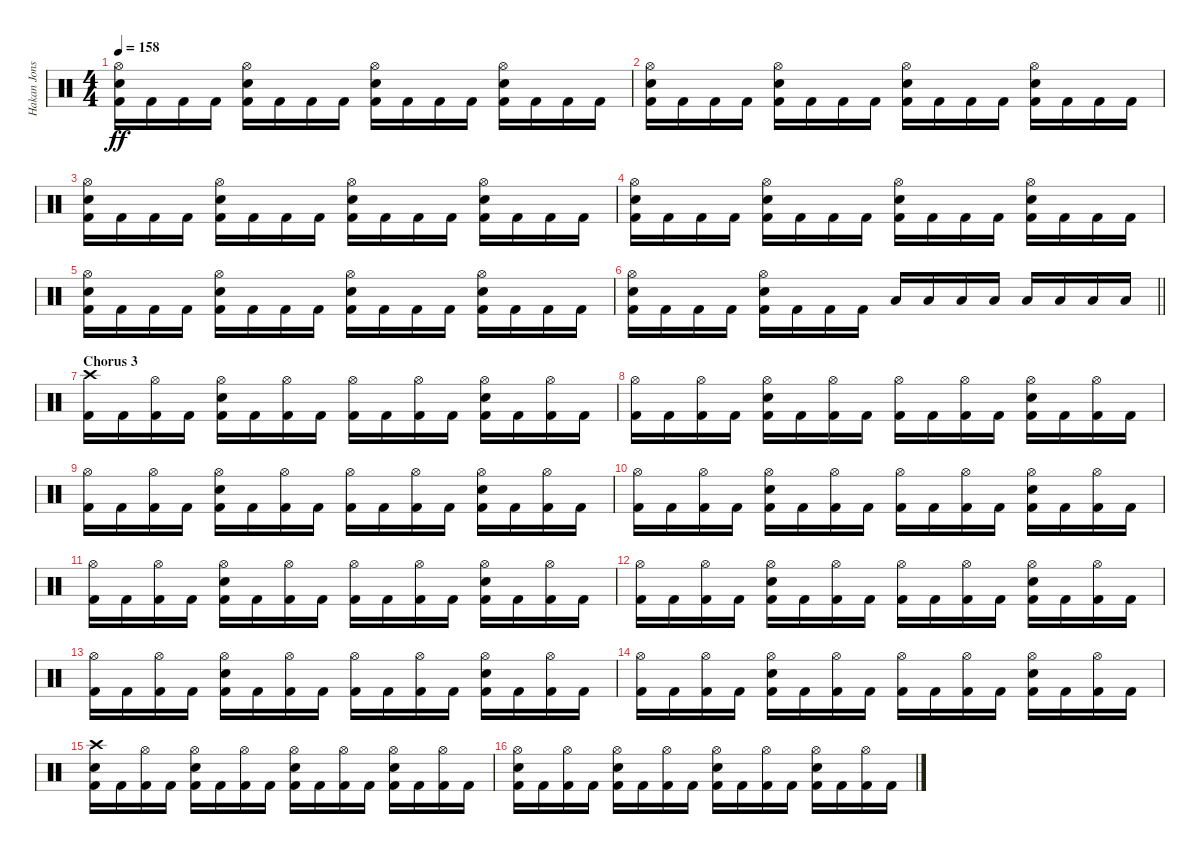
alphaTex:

\track ("Hakan Jonsson" "Hakan Jons") {instrument percussion}
\staff {score}
\articulation defaults
\ts (4 4)
\tempo 158
\clef neutral
\ks c
("Hi-Hat (open)" "Electric Snare (hit)" "Kick (hit) 2").16{dy ff} "Kick (hit) 2".16 "Kick (hit) 2".16 "Kick (hit) 2".16 ("Hi-Hat (open)" "Electric Snare (hit)" "Kick (hit) 2").16 "Kick (hit) 2".16 "Kick (hit) 2".16 "Kick (hit) 2".16 ("Hi-Hat (open)" "Electric Snare (hit)" "Kick (hit) 2").16 "Kick (hit) 2".16 "Kick (hit) 2".16 "Kick (hit) 2".16 ("Hi-Hat (open)" "Electric Snare (hit)" "Kick (hit) 2").16 "Kick (hit) 2".16 "Kick (hit) 2".16 "Kick (hit) 2".16 |
("Hi-Hat (open)" "Electric Snare (hit)" "Kick (hit) 2").16 "Kick (hit) 2".16 "Kick (hit) 2".16 "Kick (hit) 2".16 ("Hi-Hat (open)" "Electric Snare (hit)" "Kick (hit) 2").16 "Kick (hit) 2".16 "Kick (hit) 2".16 "Kick (hit) 2".16 ("Hi-Hat (open)" "Electric Snare (hit)" "Kick (hit) 2").16 "Kick (hit) 2".16 "Kick (hit) 2".16 "Kick (hit) 2".16 ("Hi-Hat (open)" "Electric Snare (hit)" "Kick (hit) 2").16 "Kick (hit) 2".16 "Kick (hit) 2".16 "Kick (hit) 2".16 |
("Hi-Hat (open)" "Electric Snare (hit)" "Kick (hit) 2").16 "Kick (hit) 2".16 "Kick (hit) 2".16 "Kick (hit) 2".16 ("Hi-Hat (open)" "Electric Snare (hit)" "Kick (hit) 2").16 "Kick (hit) 2".16 "Kick (hit) 2".16 "Kick (hit) 2".16 ("Hi-Hat (open)" "Electric Snare (hit)" "Kick (hit) 2").16 "Kick (hit) 2".16 "Kick (hit) 2".16 "Kick (hit) 2".16 ("Hi-Hat (open)" "Electric Snare (hit)" "Kick (hit) 2").16 "Kick (hit) 2".16 "Kick (hit) 2".16 "Kick (hit) 2".16 |
("Hi-Hat (open)" "Electric Snare (hit)" "Kick (hit) 2").16 "Kick (hit) 2".16 "Kick (hit) 2".16 "Kick (hit) 2".16 ("Hi-Hat (open)" "Electric Snare (hit)" "Kick (hit) 2").16 "Kick (hit) 2".16 "Kick (hit) 2".16 "Kick (hit) 2".16 ("Hi-Hat (open)" "Electric Snare (hit)" "Kick (hit) 2").16 "Kick (hit) 2".16 "Kick (hit) 2".16 "Kick (hit) 2".16 ("Hi-Hat (open)" "Electric Snare (hit)" "Kick (hit) 2").16 "Kick (hit) 2".16 "Kick (hit) 2".16 "Kick (hit) 2".16 |
("Hi-Hat (open)" "Electric Snare (hit)" "Kick (hit) 2").16 "Kick (hit) 2".16 "Kick (hit) 2".16 "Kick (hit) 2".16 ("Hi-Hat (open)" "Electric Snare (hit)" "Kick (hit) 2").16 "Kick (hit) 2".16 "Kick (hit) 2".16 "Kick (hit) 2".16 ("Hi-Hat (open)" "Electric Snare (hit)" "Kick (hit) 2").16 "Kick (hit) 2".16 "Kick (hit) 2".16 "Kick (hit) 2".16 ("Hi-Hat (open)" "Electric Snare (hit)" "Kick (hit) 2").16 "Kick (hit) 2".16 "Kick (hit) 2".16 "Kick (hit) 2".16 |
\barLineRight lightlight
("Hi-Hat (open)" "Electric Snare (hit)" "Kick (hit) 2").16 "Kick (hit) 2".16 "Kick (hit) 2".16 "Kick (hit) 2".16 ("Hi-Hat (open)" "Electric Snare (hit)" "Kick (hit) 2").16 "Kick (hit) 2".16 "Kick (hit) 2".16 "Kick (hit) 2".16 "Low Tom (hit)".16 "Low Tom (hit)".16 "Low Tom (hit)".16 "Low Tom (hit)".16 "Low Tom (hit)".16 "Low Tom (hit)".16 "Low Tom (hit)".16 "Low Tom (hit)".16 |
\section ("" "Chorus 3")
("Crash high (hit)" "Kick (hit) 2").16 "Kick (hit) 2".16 ("Hi-Hat (open)" "Kick (hit) 2").16 "Kick (hit) 2".16 ("Hi-Hat (open)" "Electric Snare (hit)" "Kick (hit) 2").16 "Kick (hit) 2".16 ("Hi-Hat (open)" "Kick (hit) 2").16 "Kick (hit) 2".16 ("Hi-Hat (open)" "Kick (hit) 2").16 "Kick (hit) 2".16 ("Hi-Hat (open)" "Kick (hit) 2").16 "Kick (hit) 2".16 ("Hi-Hat (open)" "Electric Snare (hit)" "Kick (hit) 2").16 "Kick (hit) 2".16 ("Hi-Hat (open)" "Kick (hit) 2").16 "Kick (hit) 2".16 |
("Hi-Hat (open)" "Kick (hit) 2").16 "Kick (hit) 2".16 ("Hi-Hat (open)" "Kick (hit) 2").16 "Kick (hit) 2".16 ("Hi-Hat (open)" "Electric Snare (hit)" "Kick (hit) 2").16 "Kick (hit) 2".16 ("Hi-Hat (open)" "Kick (hit) 2").16 "Kick (hit) 2".16 ("Hi-Hat (open)" "Kick (hit) 2").16 "Kick (hit) 2".16 ("Hi-Hat (open)" "Kick (hit) 2").16 "Kick (hit) 2".16 ("Hi-Hat (open)" "Electric Snare (hit)" "Kick (hit) 2").16 "Kick (hit) 2".16 ("Hi-Hat (open)" "Kick (hit) 2").16 "Kick (hit) 2".16 |
("Hi-Hat (open)" "Kick (hit) 2").16 "Kick (hit) 2".16 ("Hi-Hat (open)" "Kick (hit) 2").16 "Kick (hit) 2".16 ("Hi-Hat (open)" "Electric Snare (hit)" "Kick (hit) 2").16 "Kick (hit) 2".16 ("Hi-Hat (open)" "Kick (hit) 2").16 "Kick (hit) 2".16 ("Hi-Hat (open)" "Kick (hit) 2").16 "Kick (hit) 2".16 ("Hi-Hat (open)" "Kick (hit) 2").16 "Kick (hit) 2".16 ("Hi-Hat (open)" "Electric Snare (hit)" "Kick (hit) 2").16 "Kick (hit) 2".16 ("Hi-Hat (open)" "Kick (hit) 2").16 "Kick (hit) 2".16 |
("Hi-Hat (open)" "Kick (hit) 2").16 "Kick (hit) 2".16 ("Hi-Hat (open)" "Kick (hit) 2").16 "Kick (hit) 2".16 ("Hi-Hat (open)" "Electric Snare (hit)" "Kick (hit) 2").16 "Kick (hit) 2".16 ("Hi-Hat (open)" "Kick (hit) 2").16 "Kick (hit) 2".16 ("Hi-Hat (open)" "Kick (hit) 2").16 "Kick (hit) 2".16 ("Hi-Hat (open)" "Kick (hit) 2").16 "Kick (hit) 2".16 ("Hi-Hat (open)" "Electric Snare (hit)" "Kick (hit) 2").16 "Kick (hit) 2".16 ("Hi-Hat (open)" "Kick (hit) 2").16 "Kick (hit) 2".16 |
("Hi-Hat (open)" "Kick (hit) 2").16 "Kick (hit) 2".16 ("Hi-Hat (open)" "Kick (hit) 2").16 "Kick (hit) 2".16 ("Hi-Hat (open)" "Electric Snare (hit)" "Kick (hit) 2").16 "Kick (hit) 2".16 ("Hi-Hat (open)" "Kick (hit) 2").16 "Kick (hit) 2".16 ("Hi-Hat (open)" "Kick (hit) 2").16 "Kick (hit) 2".16 ("Hi-Hat (open)" "Kick (hit) 2").16 "Kick (hit) 2".16 ("Hi-Hat (open)" "Electric Snare (hit)" "Kick (hit) 2").16 "Kick (hit) 2".16 ("Hi-Hat (open)" "Kick (hit) 2").16 "Kick (hit) 2".16 |
("Hi-Hat (open)" "Kick (hit) 2").16 "Kick (hit) 2".16 ("Hi-Hat (open)" "Kick (hit) 2").16 "Kick (hit) 2".16 ("Hi-Hat (open)" "Electric Snare (hit)" "Kick (hit) 2").16 "Kick (hit) 2".16 ("Hi-Hat (open)" "Kick (hit) 2").16 "Kick (hit) 2".16 ("Hi-Hat (open)" "Kick (hit) 2").16 "Kick (hit) 2".16 ("Hi-Hat (open)" "Kick (hit) 2").16 "Kick (hit) 2".16 ("Hi-Hat (open)" "Electric Snare (hit)" "Kick (hit) 2").16 "Kick (hit) 2".16 ("Hi-Hat (open)" "Kick (hit) 2").16 "Kick (hit) 2".16 |
("Hi-Hat (open)" "Kick (hit) 2").16 "Kick (hit) 2".16 ("Hi-Hat (open)" "Kick (hit) 2").16 "Kick (hit) 2".16 ("Hi-Hat (open)" "Electric Snare (hit)" "Kick (hit) 2").16 "Kick (hit) 2".16 ("Hi-Hat (open)" "Kick (hit) 2").16 "Kick (hit) 2".16 ("Hi-Hat (open)" "Kick (hit) 2").16 "Kick (hit) 2".16 ("Hi-Hat (open)" "Kick (hit) 2").16 "Kick (hit) 2".16 ("Hi-Hat (open)" "Electric Snare (hit)" "Kick (hit) 2").16 "Kick (hit) 2".16 ("Hi-Hat (open)" "Kick (hit) 2").16 "Kick (hit) 2".16 |
("Hi-Hat (open)" "Kick (hit) 2").16 "Kick (hit) 2".16 ("Hi-Hat (open)" "Kick (hit) 2").16 "Kick (hit) 2".16 ("Hi-Hat (open)" "Electric Snare (hit)" "Kick (hit) 2").16 "Kick (hit) 2".16 ("Hi-Hat (open)" "Kick (hit) 2").16 "Kick (hit) 2".16 ("Hi-Hat (open)" "Kick (hit) 2").16 "Kick (hit) 2".16 ("Hi-Hat (open)" "Kick (hit) 2").16 "Kick (hit) 2".16 ("Hi-Hat (open)" "Electric Snare (hit)" "Kick (hit) 2").16 "Kick (hit) 2".16 ("Hi-Hat (open)" "Kick (hit) 2").16 "Kick (hit) 2".16 |
("Crash high (hit)" "Electric Snare (hit)" "Kick (hit) 2").16 "Kick (hit) 2".16 ("Hi-Hat (open)" "Kick (hit) 2").16 "Kick (hit) 2".16 ("Hi-Hat (open)" "Electric Snare (hit)" "Kick (hit) 2").16 "Kick (hit) 2".16 ("Hi-Hat (open)" "Kick (hit) 2").16 "Kick (hit) 2".16 ("Hi-Hat (open)" "Electric Snare (hit)" "Kick (hit) 2").16 "Kick (hit) 2".16 ("Hi-Hat (open)" "Kick (hit) 2").16 "Kick (hit) 2".16 ("Hi-Hat (open)" "Electric Snare (hit)" "Kick (hit) 2").16 "Kick (hit) 2".16 ("Hi-Hat (open)" "Kick (hit) 2").16 "Kick (hit) 2".16 |
("Hi-Hat (open)" "Electric Snare (hit)" "Kick (hit) 2").16 "Kick (hit) 2".16 ("Hi-Hat (open)" "Kick (hit) 2").16 "Kick (hit) 2".16 ("Hi-Hat (open)" "Electric Snare (hit)" "Kick (hit) 2").16 "Kick (hit) 2".16 ("Hi-Hat (open)" "Kick (hit) 2").16 "Kick (hit) 2".16 ("Hi-Hat (open)" "Electric Snare (hit)" "Kick (hit) 2").16 "Kick (hit) 2".16 ("Hi-Hat (open)" "Kick (hit) 2").16 "Kick (hit) 2".16 ("Hi-Hat (open)" "Electric Snare (hit)" "Kick (hit) 2").16 "Kick (hit) 2".16 ("Hi-Hat (open)" "Kick (hit) 2").16 "Kick (hit) 2".16
